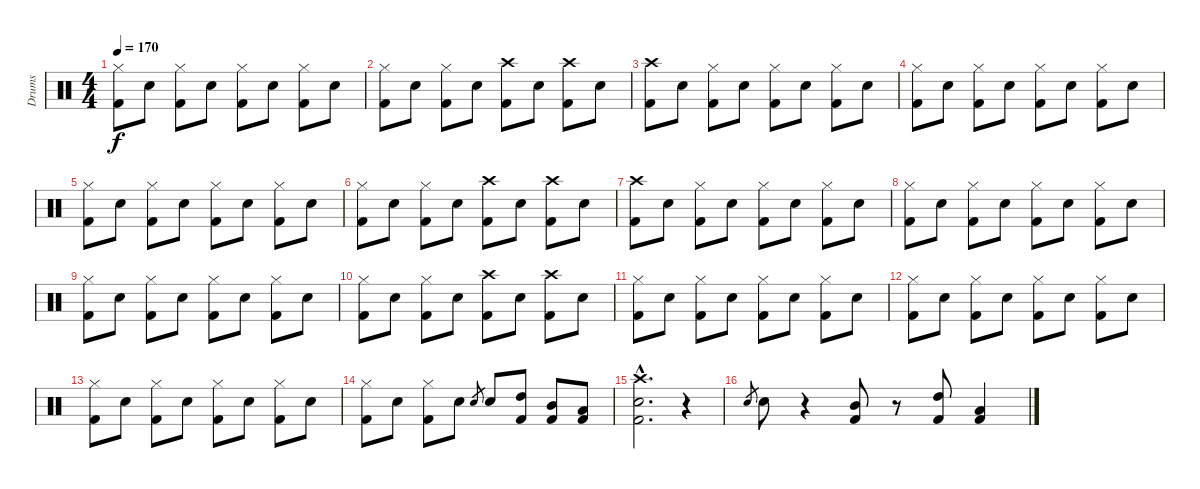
\track ("Drums" "Drums") {instrument percussion}
\staff {score}
\articulation defaults
\ts (4 4)
\tempo 170
\clef neutral
\ks c
("Hi-Hat (closed)" "Kick (hit) 2").8{dy f} "Electric Snare (hit)".8 ("Hi-Hat (closed)" "Kick (hit) 2").8 "Electric Snare (hit)".8 ("Hi-Hat (closed)" "Kick (hit) 2").8 "Electric Snare (hit)".8 ("Hi-Hat (closed)" "Kick (hit) 2").8 "Electric Snare (hit)".8 |
("Hi-Hat (closed)" "Kick (hit) 2").8 "Electric Snare (hit)".8 ("Hi-Hat (closed)" "Kick (hit) 2").8 "Electric Snare (hit)".8 ("Crash high (hit)" "Kick (hit) 2").8 "Electric Snare (hit)".8 ("Crash high (hit)" "Kick (hit) 2").8 "Electric Snare (hit)".8 |
("Crash high (hit)" "Kick (hit) 2").8 "Electric Snare (hit)".8 ("Hi-Hat (closed)" "Kick (hit) 2").8 "Electric Snare (hit)".8 ("Hi-Hat (closed)" "Kick (hit) 2").8 "Electric Snare (hit)".8 ("Hi-Hat (closed)" "Kick (hit) 2").8 "Electric Snare (hit)".8 |
("Hi-Hat (closed)" "Kick (hit) 2").8 "Electric Snare (hit)".8 ("Hi-Hat (closed)" "Kick (hit) 2").8 "Electric Snare (hit)".8 ("Hi-Hat (closed)" "Kick (hit) 2").8 "Electric Snare (hit)".8 ("Hi-Hat (closed)" "Kick (hit) 2").8 "Electric Snare (hit)".8 |
("Hi-Hat (closed)" "Kick (hit) 2").8 "Electric Snare (hit)".8 ("Hi-Hat (closed)" "Kick (hit) 2").8 "Electric Snare (hit)".8 ("Hi-Hat (closed)" "Kick (hit) 2").8 "Electric Snare (hit)".8 ("Hi-Hat (closed)" "Kick (hit) 2").8 "Electric Snare (hit)".8 |
("Hi-Hat (closed)" "Kick (hit) 2").8 "Electric Snare (hit)".8 ("Hi-Hat (closed)" "Kick (hit) 2").8 "Electric Snare (hit)".8 ("Crash high (hit)" "Kick (hit) 2").8 "Electric Snare (hit)".8 ("Crash high (hit)" "Kick (hit) 2").8 "Electric Snare (hit)".8 |
("Crash high (hit)" "Kick (hit) 2").8 "Electric Snare (hit)".8 ("Hi-Hat (closed)" "Kick (hit) 2").8 "Electric Snare (hit)".8 ("Hi-Hat (closed)" "Kick (hit) 2").8 "Electric Snare (hit)".8 ("Hi-Hat (closed)" "Kick (hit) 2").8 "Electric Snare (hit)".8 |
("Hi-Hat (closed)" "Kick (hit) 2").8 "Electric Snare (hit)".8 ("Hi-Hat (closed)" "Kick (hit) 2").8 "Electric Snare (hit)".8 ("Hi-Hat (closed)" "Kick (hit) 2").8 "Electric Snare (hit)".8 ("Hi-Hat (closed)" "Kick (hit) 2").8 "Electric Snare (hit)".8 |
("Hi-Hat (closed)" "Kick (hit) 2").8 "Electric Snare (hit)".8 ("Hi-Hat (closed)" "Kick (hit) 2").8 "Electric Snare (hit)".8 ("Hi-Hat (closed)" "Kick (hit) 2").8 "Electric Snare (hit)".8 ("Hi-Hat (closed)" "Kick (hit) 2").8 "Electric Snare (hit)".8 |
("Hi-Hat (closed)" "Kick (hit) 2").8 "Electric Snare (hit)".8 ("Hi-Hat (closed)" "Kick (hit) 2").8 "Electric Snare (hit)".8 ("Crash high (hit)" "Kick (hit) 2").8 "Electric Snare (hit)".8 ("Crash high (hit)" "Kick (hit) 2").8 "Electric Snare (hit)".8 |
("Hi-Hat (closed)" "Kick (hit) 2").8 "Electric Snare (hit)".8 ("Hi-Hat (closed)" "Kick (hit) 2").8 "Electric Snare (hit)".8 ("Hi-Hat (closed)" "Kick (hit) 2").8 "Electric Snare (hit)".8 ("Hi-Hat (closed)" "Kick (hit) 2").8 "Electric Snare (hit)".8 |
("Hi-Hat (closed)" "Kick (hit) 2").8 "Electric Snare (hit)".8 ("Hi-Hat (closed)" "Kick (hit) 2").8 "Electric Snare (hit)".8 ("Hi-Hat (closed)" "Kick (hit) 2").8 "Electric Snare (hit)".8 ("Hi-Hat (closed)" "Kick (hit) 2").8 "Electric Snare (hit)".8 |
("Hi-Hat (closed)" "Kick (hit) 2").8 "Electric Snare (hit)".8 ("Hi-Hat (closed)" "Kick (hit) 2").8 "Electric Snare (hit)".8 ("Hi-Hat (closed)" "Kick (hit) 2").8 "Electric Snare (hit)".8 ("Hi-Hat (closed)" "Kick (hit) 2").8 "Electric Snare (hit)".8 |
("Hi-Hat (closed)" "Kick (hit) 2").8 "Electric Snare (hit)".8 ("Hi-Hat (closed)" "Kick (hit) 2").8 "Electric Snare (hit)".8 "Electric Snare (hit)".8{gr} "Electric Snare (hit)".8 ("High Tom (hit)" "Kick (hit) 2").8 ("Mid Tom (hit)" "Kick (hit) 2").8 ("Low Tom (hit)" "Kick (hit) 2").8 |
("Crash high (hit)"{hac} "Electric Snare (hit)"{hac} "Kick (hit) 2"{hac}).2{d} r.4 |
"Electric Snare (hit)".8{gr} "Electric Snare (hit)".8 r.4 ("Mid Tom (hit)" "Kick (hit) 2").8 r.8 ("High Tom (hit)" "Kick (hit) 2").8 ("Low Tom (hit)" "Kick (hit) 2").4
